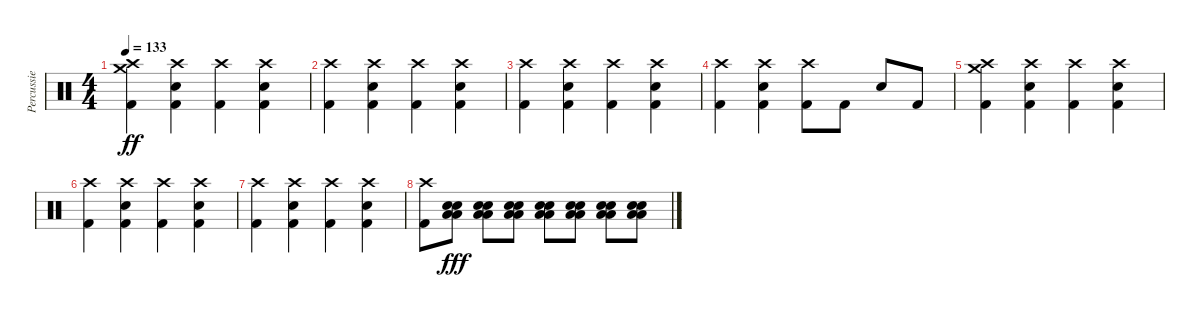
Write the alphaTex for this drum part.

\track ("Percussie" "Percussie") {instrument percussion}
\staff {score}
\articulation defaults
\ts (4 4)
\tempo 133
\clef neutral
\ks c
("Crash medium (hit)" "Crash high (hit)" "Kick (hit) 2").4{dy ff} ("Crash high (hit)" "Snare (hit) 2" "Kick (hit) 2").4 ("Crash high (hit)" "Kick (hit) 2").4 ("Crash high (hit)" "Snare (hit) 2" "Kick (hit) 2").4 |
("Crash high (hit)" "Kick (hit) 2").4 ("Crash high (hit)" "Snare (hit) 2" "Kick (hit) 2").4 ("Crash high (hit)" "Kick (hit) 2").4 ("Crash high (hit)" "Snare (hit) 2" "Kick (hit) 2").4 |
("Crash high (hit)" "Kick (hit) 2").4 ("Crash high (hit)" "Snare (hit) 2" "Kick (hit) 2").4 ("Crash high (hit)" "Kick (hit) 2").4 ("Crash high (hit)" "Snare (hit) 2" "Kick (hit) 2").4 |
("Crash high (hit)" "Kick (hit) 2").4 ("Crash high (hit)" "Snare (hit) 2" "Kick (hit) 2").4 ("Crash high (hit)" "Kick (hit) 2").8 "Kick (hit) 2".8 "Snare (hit) 2".8 "Kick (hit) 2".8 |
("Crash medium (hit)" "Crash high (hit)" "Kick (hit) 2").4 ("Crash high (hit)" "Snare (hit) 2" "Kick (hit) 2").4 ("Crash high (hit)" "Kick (hit) 2").4 ("Crash high (hit)" "Snare (hit) 2" "Kick (hit) 2").4 |
("Crash high (hit)" "Kick (hit) 2").4 ("Crash high (hit)" "Snare (hit) 2" "Kick (hit) 2").4 ("Crash high (hit)" "Kick (hit) 2").4 ("Crash high (hit)" "Snare (hit) 2" "Kick (hit) 2").4 |
("Crash high (hit)" "Kick (hit) 2").4 ("Crash high (hit)" "Snare (hit) 2" "Kick (hit) 2").4 ("Crash high (hit)" "Kick (hit) 2").4 ("Crash high (hit)" "Snare (hit) 2" "Kick (hit) 2").4 |
("Crash high (hit)" "Kick (hit) 2").8 ("Low Floor Tom (hit)" "Low Floor Tom (hit)" "Snare (hit) 2" "Snare (hit) 2").8{dy fff} ("Low Floor Tom (hit)" "Low Floor Tom (hit)" "Snare (hit) 2" "Snare (hit) 2").8 ("Low Floor Tom (hit)" "Low Floor Tom (hit)" "Snare (hit) 2" "Snare (hit) 2").8 ("Low Floor Tom (hit)" "Low Floor Tom (hit)" "Snare (hit) 2" "Snare (hit) 2").8 ("Low Floor Tom (hit)" "Low Floor Tom (hit)" "Snare (hit) 2" "Snare (hit) 2").8 ("Low Floor Tom (hit)" "Low Floor Tom (hit)" "Snare (hit) 2" "Snare (hit) 2").8 ("Low Floor Tom (hit)" "Low Floor Tom (hit)" "Snare (hit) 2" "Snare (hit) 2").8
